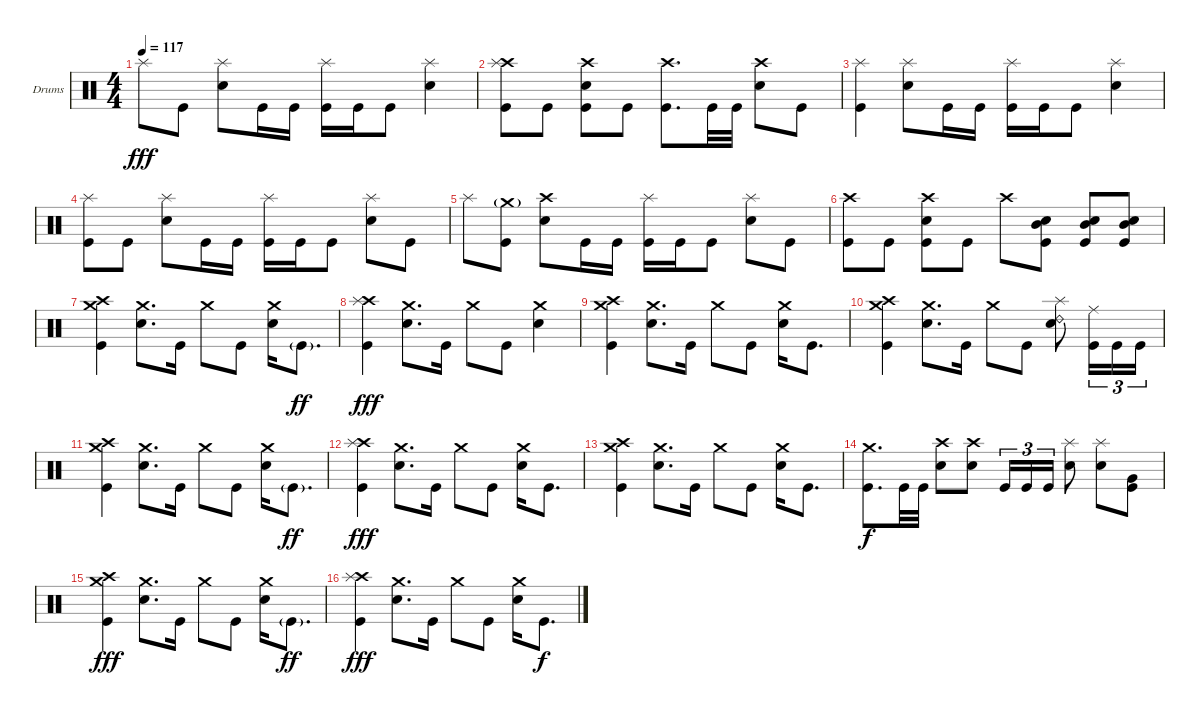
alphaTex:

\defaultSystemsLayout 4
\bracketExtendMode groupsimilarinstruments
\firstSystemTrackNameOrientation horizontal
\otherSystemsTrackNameOrientation horizontal
\track ("Drumkit" "Drums") {instrument percussion}
\staff {score}
\articulation defaults
\ts (4 4)
\tempo 117
\clef neutral
\scale
0.333333
\ks c "Splash (hit)".8{dy fff} "Kick (hit)".8
("Splash (hit)" "Snare (hit) 2").8 "Kick (hit)".16 "Kick (hit)".16 ("Splash (hit)" "Kick (hit)").16 "Kick (hit)".16 "Kick (hit)".8 ("Splash (hit)" "Snare (hit) 2").4 |
\scale
0.333333 ("Crash high (hit)" "Splash (hit)" "Kick (hit)").8 "Kick (hit)".8 ("Crash high (hit)" "Snare (hit) 2" "Kick (hit)").8 "Kick (hit)".8 ("Crash high (hit)" "Kick (hit)").8{d} "Kick (hit)".32 "Kick (hit)".32 ("Crash high (hit)" "Snare (hit) 2").8 "Kick (hit)".8 |
\scale
0.333333 ("Splash (hit)" "Kick (hit)").4 ("Splash (hit)" "Snare (hit) 2").8 "Kick (hit)".16 "Kick (hit)".16 ("Splash (hit)" "Kick (hit)").16 "Kick (hit)".16 "Kick (hit)".8 ("Splash (hit)" "Snare (hit) 2").4 |
\scale
0.333333 ("Splash (hit)" "Kick (hit)").8 "Kick (hit)".8 ("Splash (hit)" "Snare (hit) 2").8 "Kick (hit)".16 "Kick (hit)".16 ("Splash (hit)" "Kick (hit)").16 "Kick (hit)".16 "Kick (hit)".8 ("Splash (hit)" "Snare (hit) 2").8 "Kick (hit)".8 |
\scale
0.333333 "Splash (hit)".8 ("Crash medium (hit)"{g} "Kick (hit)").8 ("Crash high (hit)" "Snare (hit) 2").8 "Kick (hit)".16 "Kick (hit)".16 ("Splash (hit)" "Kick (hit)").16 "Kick (hit)".16 "Kick (hit)".8 ("Splash (hit)" "Snare (hit) 2").8 "Kick (hit)".8 |
\scale
0.333333 ("Crash high (hit)" "Kick (hit)").8 "Kick (hit)".8 ("Crash high (hit)" "Snare (hit) 2" "Kick (hit)").8 "Kick (hit)".8 "Crash high (hit)".8 ("Mid Tom (hit)" "Snare (hit) 2" "Kick (hit)").8 ("Mid Tom (hit)" "Snare (hit) 2" "Kick (hit)").8 ("Mid Tom (hit)" "Snare (hit) 2" "Kick (hit)").8 |
\scale
0.333333 ("Crash high (hit)" "Crash medium (hit)" "Kick (hit)").4 ("Crash medium (hit)" "Snare (hit) 2").8{d} "Kick (hit)".16 "Crash medium (hit)".8 "Kick (hit)".8 ("Crash medium (hit)" "Snare (hit) 2").16 "Kick (hit)"{g}.8{d dy ff} |
\scale
0.333333 ("Crash high (hit)" "Splash (hit)" "Kick (hit)").4{dy fff} ("Crash medium (hit)" "Snare (hit) 2").8{d} "Kick (hit)".16 "Crash medium (hit)".8 "Kick (hit)".8 ("Crash medium (hit)" "Snare (hit) 2").4 |
\scale
0.333333 ("Crash high (hit)" "Crash medium (hit)" "Kick (hit)").4 ("Crash medium (hit)" "Snare (hit) 2").8{d} "Kick (hit)".16 "Crash medium (hit)".8 "Kick (hit)".8 ("Crash medium (hit)" "Snare (hit) 2").16 "Kick (hit)".8{d} |
("Crash high (hit)" "Crash medium (hit)" "Kick (hit)").4 ("Crash medium (hit)" "Snare (hit) 2").8{d} "Kick (hit)".16 "Crash medium (hit)".8 "Kick (hit)".8 ("Ride (bell) 2" "Splash (hit)" "Snare (hit) 2").8 ("Ride (middle)" "Kick (hit)").16{tu (3 2)} "Kick (hit)".16{tu (3 2)} "Kick (hit)".16{tu (3 2)} |
("Crash high (hit)" "Crash medium (hit)" "Kick (hit)").4 ("Crash medium (hit)" "Snare (hit) 2").8{d} "Kick (hit)".16 "Crash medium (hit)".8 "Kick (hit)".8 ("Crash medium (hit)" "Snare (hit) 2").16 "Kick (hit)"{g}.8{d dy ff} |
("Crash high (hit)" "Splash (hit)" "Kick (hit)").4{dy fff} ("Crash medium (hit)" "Snare (hit) 2").8{d} "Kick (hit)".16 "Crash medium (hit)".8 "Kick (hit)".8 ("Crash medium (hit)" "Snare (hit) 2").16 "Kick (hit)".8{d} |
("Crash high (hit)" "Crash medium (hit)" "Kick (hit)").4 ("Crash medium (hit)" "Snare (hit) 2").8{d} "Kick (hit)".16 "Crash medium (hit)".8 "Kick (hit)".8 ("Crash medium (hit)" "Snare (hit) 2").16 "Kick (hit)".8{d} |
("Crash medium (hit)" "Kick (hit)").8{d dy f} "Kick (hit)".32 "Kick (hit)".32 ("Crash high (hit)" "Snare (hit) 2").8 ("Crash high (hit)" "Snare (hit) 2").8 "Kick (hit)".16{tu (3 2)} "Kick (hit)".16{tu (3 2)} "Kick (hit)".16{tu (3 2)} ("Splash (hit)" "Snare (hit) 2").8 ("Splash (hit)" "Snare (hit) 2").8 ("Very Low Tom (hit)" "Kick (hit)").8 |
("Crash high (hit)" "Crash medium (hit)" "Kick (hit)").4{dy fff} ("Crash medium (hit)" "Snare (hit) 2").8{d} "Kick (hit)".16 "Crash medium (hit)".8 "Kick (hit)".8 ("Crash medium (hit)" "Snare (hit) 2").16 "Kick (hit)"{g}.8{d dy ff} |
("Crash high (hit)" "Splash (hit)" "Kick (hit)").4{dy fff} ("Crash medium (hit)" "Snare (hit) 2").8{d} "Kick (hit)".16 "Crash medium (hit)".8 "Kick (hit)".8 ("Crash medium (hit)" "Snare (hit) 2").16 "Kick (hit)".8{d dy f}
